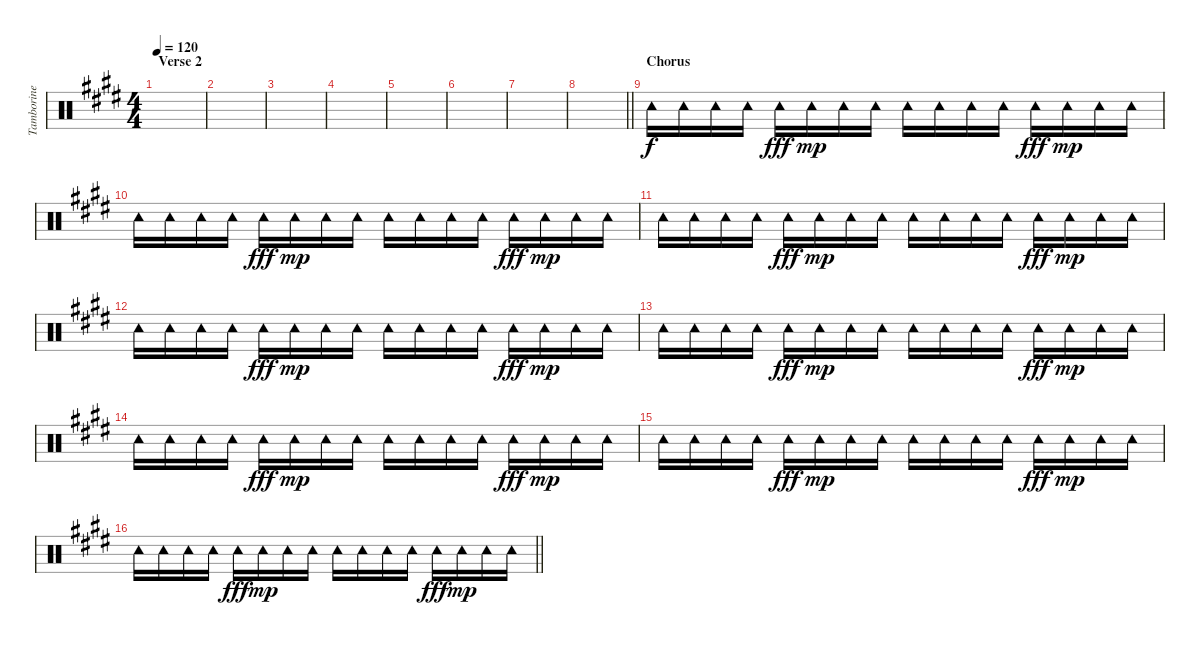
\track ("Tamborine" "Tamborine") {instrument percussion}
\staff {score}
\articulation defaults
\ts (4 4)
\section ("" "Verse 2")
\tempo 120
\clef neutral
\ks e
|
|
|
|
|
|
|
\barLineRight lightlight
|
\section ("" "Chorus")
"Tambourine (hit)".16 "Tambourine (hit)".16 "Tambourine (hit)".16 "Tambourine (hit)".16 "Tambourine (hit)".16{dy fff} "Tambourine (hit)".16{dy mp} "Tambourine (hit)".16 "Tambourine (hit)".16 "Tambourine (hit)".16 "Tambourine (hit)".16 "Tambourine (hit)".16 "Tambourine (hit)".16 "Tambourine (hit)".16{dy fff} "Tambourine (hit)".16{dy mp} "Tambourine (hit)".16 "Tambourine (hit)".16 |
"Tambourine (hit)".16 "Tambourine (hit)".16 "Tambourine (hit)".16 "Tambourine (hit)".16 "Tambourine (hit)".16{dy fff} "Tambourine (hit)".16{dy mp} "Tambourine (hit)".16 "Tambourine (hit)".16 "Tambourine (hit)".16 "Tambourine (hit)".16 "Tambourine (hit)".16 "Tambourine (hit)".16 "Tambourine (hit)".16{dy fff} "Tambourine (hit)".16{dy mp} "Tambourine (hit)".16 "Tambourine (hit)".16 |
"Tambourine (hit)".16 "Tambourine (hit)".16 "Tambourine (hit)".16 "Tambourine (hit)".16 "Tambourine (hit)".16{dy fff} "Tambourine (hit)".16{dy mp} "Tambourine (hit)".16 "Tambourine (hit)".16 "Tambourine (hit)".16 "Tambourine (hit)".16 "Tambourine (hit)".16 "Tambourine (hit)".16 "Tambourine (hit)".16{dy fff} "Tambourine (hit)".16{dy mp} "Tambourine (hit)".16 "Tambourine (hit)".16 |
"Tambourine (hit)".16 "Tambourine (hit)".16 "Tambourine (hit)".16 "Tambourine (hit)".16 "Tambourine (hit)".16{dy fff} "Tambourine (hit)".16{dy mp} "Tambourine (hit)".16 "Tambourine (hit)".16 "Tambourine (hit)".16 "Tambourine (hit)".16 "Tambourine (hit)".16 "Tambourine (hit)".16 "Tambourine (hit)".16{dy fff} "Tambourine (hit)".16{dy mp} "Tambourine (hit)".16 "Tambourine (hit)".16 |
"Tambourine (hit)".16 "Tambourine (hit)".16 "Tambourine (hit)".16 "Tambourine (hit)".16 "Tambourine (hit)".16{dy fff} "Tambourine (hit)".16{dy mp} "Tambourine (hit)".16 "Tambourine (hit)".16 "Tambourine (hit)".16 "Tambourine (hit)".16 "Tambourine (hit)".16 "Tambourine (hit)".16 "Tambourine (hit)".16{dy fff} "Tambourine (hit)".16{dy mp} "Tambourine (hit)".16 "Tambourine (hit)".16 |
"Tambourine (hit)".16 "Tambourine (hit)".16 "Tambourine (hit)".16 "Tambourine (hit)".16 "Tambourine (hit)".16{dy fff} "Tambourine (hit)".16{dy mp} "Tambourine (hit)".16 "Tambourine (hit)".16 "Tambourine (hit)".16 "Tambourine (hit)".16 "Tambourine (hit)".16 "Tambourine (hit)".16 "Tambourine (hit)".16{dy fff} "Tambourine (hit)".16{dy mp} "Tambourine (hit)".16 "Tambourine (hit)".16 |
"Tambourine (hit)".16 "Tambourine (hit)".16 "Tambourine (hit)".16 "Tambourine (hit)".16 "Tambourine (hit)".16{dy fff} "Tambourine (hit)".16{dy mp} "Tambourine (hit)".16 "Tambourine (hit)".16 "Tambourine (hit)".16 "Tambourine (hit)".16 "Tambourine (hit)".16 "Tambourine (hit)".16 "Tambourine (hit)".16{dy fff} "Tambourine (hit)".16{dy mp} "Tambourine (hit)".16 "Tambourine (hit)".16 |
\barLineRight lightlight "Tambourine (hit)".16 "Tambourine (hit)".16 "Tambourine (hit)".16 "Tambourine (hit)".16 "Tambourine (hit)".16{dy fff} "Tambourine (hit)".16{dy mp} "Tambourine (hit)".16 "Tambourine (hit)".16 "Tambourine (hit)".16 "Tambourine (hit)".16 "Tambourine (hit)".16 "Tambourine (hit)".16 "Tambourine (hit)".16{dy fff} "Tambourine (hit)".16{dy mp} "Tambourine (hit)".16 "Tambourine (hit)".16
